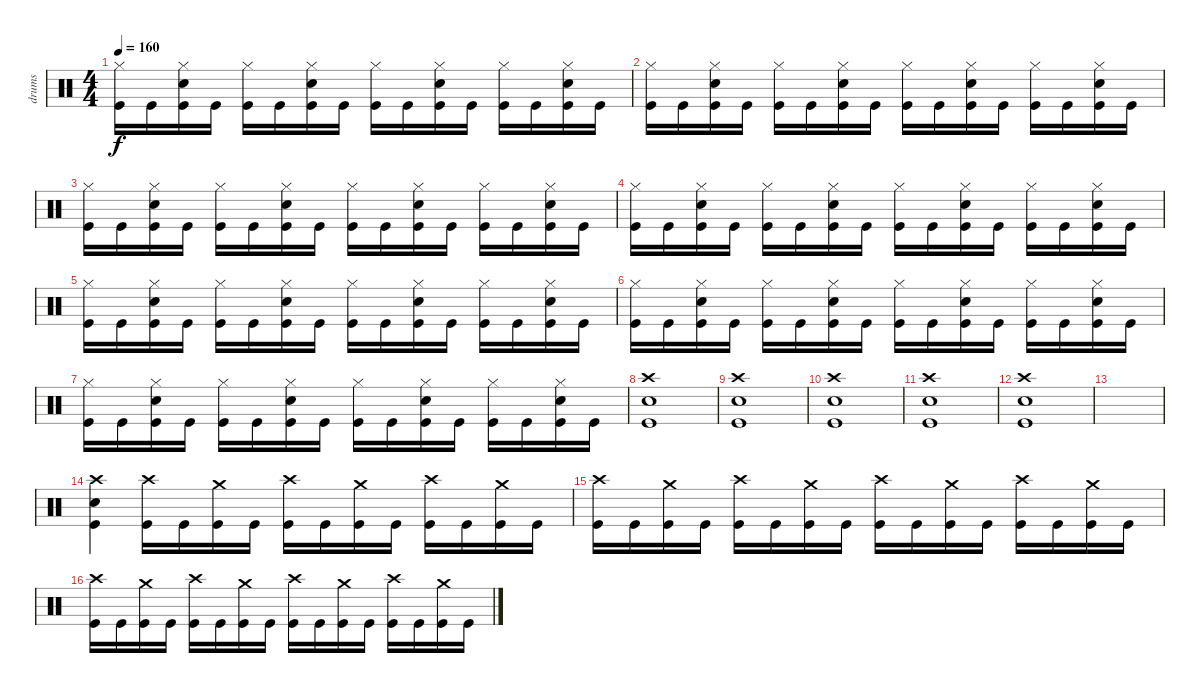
\track ("drums" "drums") {instrument percussion}
\staff {score}
\articulation defaults
\ts (4 4)
\tempo 160
\clef neutral
\ks c
("Kick (hit)" "Hi-Hat (closed)").16{dy f} "Kick (hit)".16 ("Kick (hit)" "Hi-Hat (closed)" "Snare (hit) 2").16 "Kick (hit)".16 ("Kick (hit)" "Hi-Hat (closed)").16 "Kick (hit)".16 ("Kick (hit)" "Hi-Hat (closed)" "Snare (hit) 2").16 "Kick (hit)".16 ("Kick (hit)" "Hi-Hat (closed)").16 "Kick (hit)".16 ("Kick (hit)" "Hi-Hat (closed)" "Snare (hit) 2").16 "Kick (hit)".16 ("Kick (hit)" "Hi-Hat (closed)").16 "Kick (hit)".16 ("Kick (hit)" "Hi-Hat (closed)" "Snare (hit) 2").16 "Kick (hit)".16 |
("Kick (hit)" "Hi-Hat (closed)").16 "Kick (hit)".16 ("Kick (hit)" "Hi-Hat (closed)" "Snare (hit) 2").16 "Kick (hit)".16 ("Kick (hit)" "Hi-Hat (closed)").16 "Kick (hit)".16 ("Kick (hit)" "Hi-Hat (closed)" "Snare (hit) 2").16 "Kick (hit)".16 ("Kick (hit)" "Hi-Hat (closed)").16 "Kick (hit)".16 ("Kick (hit)" "Hi-Hat (closed)" "Snare (hit) 2").16 "Kick (hit)".16 ("Kick (hit)" "Hi-Hat (closed)").16 "Kick (hit)".16 ("Kick (hit)" "Hi-Hat (closed)" "Snare (hit) 2").16 "Kick (hit)".16 |
("Kick (hit)" "Hi-Hat (closed)").16 "Kick (hit)".16 ("Kick (hit)" "Hi-Hat (closed)" "Snare (hit) 2").16 "Kick (hit)".16 ("Kick (hit)" "Hi-Hat (closed)").16 "Kick (hit)".16 ("Kick (hit)" "Hi-Hat (closed)" "Snare (hit) 2").16 "Kick (hit)".16 ("Kick (hit)" "Hi-Hat (closed)").16 "Kick (hit)".16 ("Kick (hit)" "Hi-Hat (closed)" "Snare (hit) 2").16 "Kick (hit)".16 ("Kick (hit)" "Hi-Hat (closed)").16 "Kick (hit)".16 ("Kick (hit)" "Hi-Hat (closed)" "Snare (hit) 2").16 "Kick (hit)".16 |
("Kick (hit)" "Hi-Hat (closed)").16 "Kick (hit)".16 ("Kick (hit)" "Hi-Hat (closed)" "Snare (hit) 2").16 "Kick (hit)".16 ("Kick (hit)" "Hi-Hat (closed)").16 "Kick (hit)".16 ("Kick (hit)" "Hi-Hat (closed)" "Snare (hit) 2").16 "Kick (hit)".16 ("Kick (hit)" "Hi-Hat (closed)").16 "Kick (hit)".16 ("Kick (hit)" "Hi-Hat (closed)" "Snare (hit) 2").16 "Kick (hit)".16 ("Kick (hit)" "Hi-Hat (closed)").16 "Kick (hit)".16 ("Kick (hit)" "Hi-Hat (closed)" "Snare (hit) 2").16 "Kick (hit)".16 |
("Kick (hit)" "Hi-Hat (closed)").16 "Kick (hit)".16 ("Kick (hit)" "Hi-Hat (closed)" "Snare (hit) 2").16 "Kick (hit)".16 ("Kick (hit)" "Hi-Hat (closed)").16 "Kick (hit)".16 ("Kick (hit)" "Hi-Hat (closed)" "Snare (hit) 2").16 "Kick (hit)".16 ("Kick (hit)" "Hi-Hat (closed)").16 "Kick (hit)".16 ("Kick (hit)" "Hi-Hat (closed)" "Snare (hit) 2").16 "Kick (hit)".16 ("Kick (hit)" "Hi-Hat (closed)").16 "Kick (hit)".16 ("Kick (hit)" "Hi-Hat (closed)" "Snare (hit) 2").16 "Kick (hit)".16 |
("Kick (hit)" "Hi-Hat (closed)").16 "Kick (hit)".16 ("Kick (hit)" "Hi-Hat (closed)" "Snare (hit) 2").16 "Kick (hit)".16 ("Kick (hit)" "Hi-Hat (closed)").16 "Kick (hit)".16 ("Kick (hit)" "Hi-Hat (closed)" "Snare (hit) 2").16 "Kick (hit)".16 ("Kick (hit)" "Hi-Hat (closed)").16 "Kick (hit)".16 ("Kick (hit)" "Hi-Hat (closed)" "Snare (hit) 2").16 "Kick (hit)".16 ("Kick (hit)" "Hi-Hat (closed)").16 "Kick (hit)".16 ("Kick (hit)" "Hi-Hat (closed)" "Snare (hit) 2").16 "Kick (hit)".16 |
("Kick (hit)" "Hi-Hat (closed)").16 "Kick (hit)".16 ("Kick (hit)" "Hi-Hat (closed)" "Snare (hit) 2").16 "Kick (hit)".16 ("Kick (hit)" "Hi-Hat (closed)").16 "Kick (hit)".16 ("Kick (hit)" "Hi-Hat (closed)" "Snare (hit) 2").16 "Kick (hit)".16 ("Kick (hit)" "Hi-Hat (closed)").16 "Kick (hit)".16 ("Kick (hit)" "Hi-Hat (closed)" "Snare (hit) 2").16 "Kick (hit)".16 ("Kick (hit)" "Hi-Hat (closed)").16 "Kick (hit)".16 ("Kick (hit)" "Hi-Hat (closed)" "Snare (hit) 2").16 "Kick (hit)".16 |
("Kick (hit)" "Snare (hit) 2" "Crash high (hit)").1 |
("Kick (hit)" "Snare (hit) 2" "Crash high (hit)").1 |
("Kick (hit)" "Snare (hit) 2" "Crash high (hit)").1 |
("Kick (hit)" "Snare (hit) 2" "Crash high (hit)").1 |
("Kick (hit)" "Snare (hit) 2" "Crash high (hit)").1 |
|
("Kick (hit)" "Snare (hit) 2" "Crash high (hit)").4 ("Kick (hit)" "Crash high (hit)").16 "Kick (hit)".16 ("Kick (hit)" "Crash medium (hit)").16 "Kick (hit)".16 ("Kick (hit)" "Crash high (hit)").16 "Kick (hit)".16 ("Kick (hit)" "Crash medium (hit)").16 "Kick (hit)".16 ("Kick (hit)" "Crash high (hit)").16 "Kick (hit)".16 ("Kick (hit)" "Crash medium (hit)").16 "Kick (hit)".16 |
("Kick (hit)" "Crash high (hit)").16 "Kick (hit)".16 ("Kick (hit)" "Crash medium (hit)").16 "Kick (hit)".16 ("Kick (hit)" "Crash high (hit)").16 "Kick (hit)".16 ("Kick (hit)" "Crash medium (hit)").16 "Kick (hit)".16 ("Kick (hit)" "Crash high (hit)").16 "Kick (hit)".16 ("Kick (hit)" "Crash medium (hit)").16 "Kick (hit)".16 ("Kick (hit)" "Crash high (hit)").16 "Kick (hit)".16 ("Kick (hit)" "Crash medium (hit)").16 "Kick (hit)".16 |
("Kick (hit)" "Crash high (hit)").16 "Kick (hit)".16 ("Kick (hit)" "Crash medium (hit)").16 "Kick (hit)".16 ("Kick (hit)" "Crash high (hit)").16 "Kick (hit)".16 ("Kick (hit)" "Crash medium (hit)").16 "Kick (hit)".16 ("Kick (hit)" "Crash high (hit)").16 "Kick (hit)".16 ("Kick (hit)" "Crash medium (hit)").16 "Kick (hit)".16 ("Kick (hit)" "Crash high (hit)").16 "Kick (hit)".16 ("Kick (hit)" "Crash medium (hit)").16 "Kick (hit)".16
